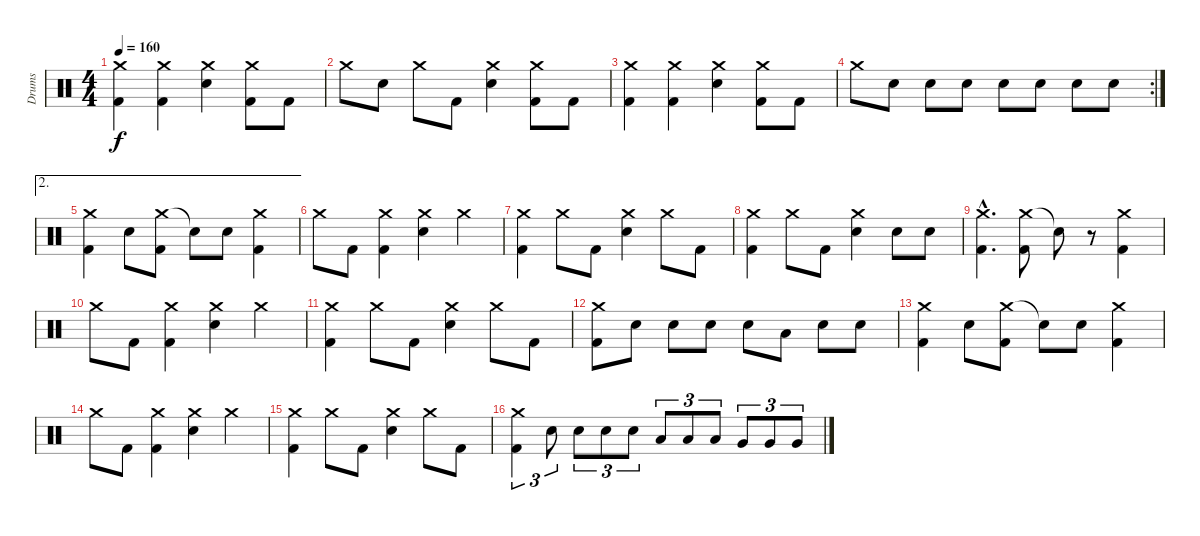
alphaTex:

\track ("Drums" "Drums") {instrument percussion}
\staff {score}
\articulation defaults
\ts (4 4)
\tempo 160
\clef neutral
\ks c
("Crash medium (hit)" "Kick (hit) 2").4{dy f} ("Crash medium (hit)" "Kick (hit) 2").4 ("Crash medium (hit)" "Snare (hit) 2").4 ("Crash medium (hit)" "Kick (hit) 2").8 "Kick (hit) 2".8 |
"Crash medium (hit)".8 "Snare (hit) 2".8 "Crash medium (hit)".8 "Kick (hit) 2".8 ("Crash medium (hit)" "Snare (hit) 2").4 ("Crash medium (hit)" "Kick (hit) 2").8 "Kick (hit) 2".8 |
("Crash medium (hit)" "Kick (hit) 2").4 ("Crash medium (hit)" "Kick (hit) 2").4 ("Crash medium (hit)" "Snare (hit) 2").4 ("Crash medium (hit)" "Kick (hit) 2").8 "Kick (hit) 2".8 |
\rc 2 "Crash medium (hit)".8 "Snare (hit) 2".8 "Snare (hit) 2".8 "Snare (hit) 2".8 "Snare (hit) 2".8 "Snare (hit) 2".8 "Snare (hit) 2".8 "Snare (hit) 2".8
|
\ae 2
("Crash medium (hit)" "Kick (hit) 2").4 "Snare (hit) 2".8 ("Crash medium (hit)" "Kick (hit) 2").8 "Snare (hit)"{t}.8 "Snare (hit) 2".8 ("Crash medium (hit)" "Kick (hit) 2").4 |
"Crash medium (hit)".8 "Kick (hit) 2".8 ("Crash medium (hit)" "Kick (hit) 2").4 ("Crash medium (hit)" "Snare (hit) 2").4 "Crash medium (hit)".4 |
("Crash medium (hit)" "Kick (hit) 2").4 "Crash medium (hit)".8 "Kick (hit) 2".8 ("Crash medium (hit)" "Snare (hit) 2").4 "Crash medium (hit)".8 "Kick (hit) 2".8 |
("Crash medium (hit)" "Kick (hit) 2").4 "Crash medium (hit)".8 "Kick (hit) 2".8 ("Crash medium (hit)" "Snare (hit) 2").4 "Snare (hit) 2".8 "Snare (hit) 2".8 |
("Crash medium (hit)"{hac} "Kick (hit) 2"{hac}).4{d} ("Crash medium (hit)" "Kick (hit) 2").8 "Snare (hit)"{t}.8 r.8 ("Crash medium (hit)" "Kick (hit) 2").4 |
"Crash medium (hit)".8 "Kick (hit) 2".8 ("Crash medium (hit)" "Kick (hit) 2").4 ("Crash medium (hit)" "Snare (hit) 2").4 "Crash medium (hit)".4 |
("Crash medium (hit)" "Kick (hit) 2").4 "Crash medium (hit)".8 "Kick (hit) 2".8 ("Crash medium (hit)" "Snare (hit) 2").4 "Crash medium (hit)".8 "Kick (hit) 2".8 |
("Crash medium (hit)" "Kick (hit) 2").8 "Snare (hit) 2".8 "Snare (hit) 2".8 "Snare (hit) 2".8 "Snare (hit) 2".8 "Low Tom (hit)".8 "Snare (hit) 2".8 "Snare (hit) 2".8 |
("Crash medium (hit)" "Kick (hit) 2").4 "Snare (hit) 2".8 ("Crash medium (hit)" "Kick (hit) 2").8 "Snare (hit)"{t}.8 "Snare (hit) 2".8 ("Crash medium (hit)" "Kick (hit) 2").4 |
"Crash medium (hit)".8 "Kick (hit) 2".8 ("Crash medium (hit)" "Kick (hit) 2").4 ("Crash medium (hit)" "Snare (hit) 2").4 "Crash medium (hit)".4 |
("Crash medium (hit)" "Kick (hit) 2").4 "Crash medium (hit)".8 "Kick (hit) 2".8 ("Crash medium (hit)" "Snare (hit) 2").4 "Crash medium (hit)".8 "Kick (hit) 2".8 |
("Crash medium (hit)" "Kick (hit) 2").4{tu (3 2)} "Snare (hit) 2".8{tu (3 2)} "Snare (hit) 2".8{tu (3 2)} "Snare (hit) 2".8{tu (3 2)} "Snare (hit) 2".8{tu (3 2)} "Low Tom (hit)".8{tu (3 2)} "Low Tom (hit)".8{tu (3 2)} "Low Tom (hit)".8{tu (3 2)} "Very Low Tom (hit)".8{tu (3 2)} "Very Low Tom (hit)".8{tu (3 2)} "Very Low Tom (hit)".8{tu (3 2)}
